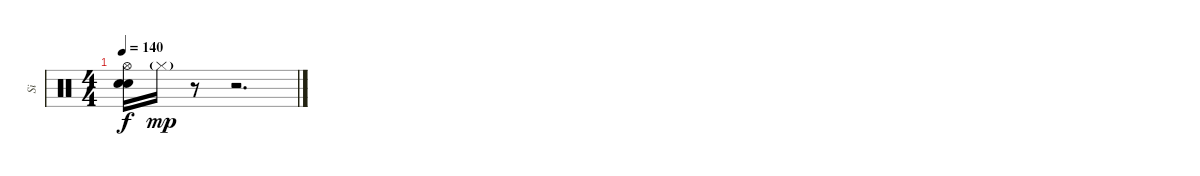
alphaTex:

\track ("Si" "Si") {instrument percussion}
\staff {score}
\articulation defaults
\ts (4 4)
\tempo 140
\clef neutral
\ks c
("Hi-Hat (open)" "Electric Snare (hit)" "Electric Snare (hit)").16{dy f} "Hi-Hat (closed)"{g}.16{dy mp} r.8 r.2{d}
